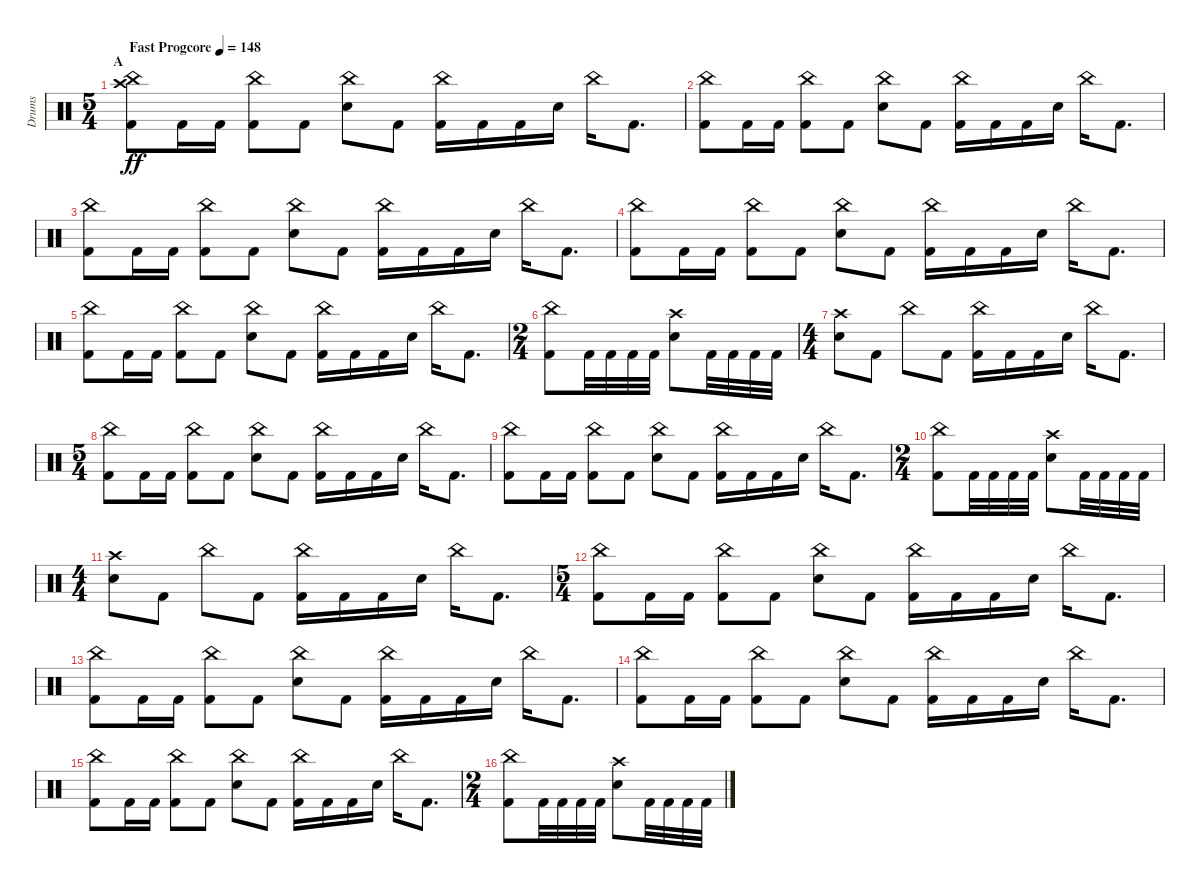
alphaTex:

\track ("Drums" "Drums") {instrument percussion}
\staff {score}
\articulation defaults
\ts (5 4)
\section ("" "A")
\tempo (148 "Fast Progcore")
\clef neutral
\ks c
("Crash high (hit)" "China (hit)" "Kick (hit) 2").8{dy ff} "Kick (hit) 2".16 "Kick (hit) 2".16 ("China (hit)" "Kick (hit) 2").8 "Kick (hit) 2".8 ("China (hit)" "Electric Snare (hit)").8 "Kick (hit) 2".8 ("China (hit)" "Kick (hit) 2").16 "Kick (hit) 2".16 "Kick (hit) 2".16 "Electric Snare (hit)".16 "China (hit)".16 "Kick (hit) 2".8{d} |
("China (hit)" "Kick (hit) 2").8 "Kick (hit) 2".16 "Kick (hit) 2".16 ("China (hit)" "Kick (hit) 2").8 "Kick (hit) 2".8 ("China (hit)" "Electric Snare (hit)").8 "Kick (hit) 2".8 ("China (hit)" "Kick (hit) 2").16 "Kick (hit) 2".16 "Kick (hit) 2".16 "Electric Snare (hit)".16 "China (hit)".16 "Kick (hit) 2".8{d} |
("China (hit)" "Kick (hit) 2").8 "Kick (hit) 2".16 "Kick (hit) 2".16 ("China (hit)" "Kick (hit) 2").8 "Kick (hit) 2".8 ("China (hit)" "Electric Snare (hit)").8 "Kick (hit) 2".8 ("China (hit)" "Kick (hit) 2").16 "Kick (hit) 2".16 "Kick (hit) 2".16 "Electric Snare (hit)".16 "China (hit)".16 "Kick (hit) 2".8{d} |
("China (hit)" "Kick (hit) 2").8 "Kick (hit) 2".16 "Kick (hit) 2".16 ("China (hit)" "Kick (hit) 2").8 "Kick (hit) 2".8 ("China (hit)" "Electric Snare (hit)").8 "Kick (hit) 2".8 ("China (hit)" "Kick (hit) 2").16 "Kick (hit) 2".16 "Kick (hit) 2".16 "Electric Snare (hit)".16 "China (hit)".16 "Kick (hit) 2".8{d} |
("China (hit)" "Kick (hit) 2").8 "Kick (hit) 2".16 "Kick (hit) 2".16 ("China (hit)" "Kick (hit) 2").8 "Kick (hit) 2".8 ("China (hit)" "Electric Snare (hit)").8 "Kick (hit) 2".8 ("China (hit)" "Kick (hit) 2").16 "Kick (hit) 2".16 "Kick (hit) 2".16 "Electric Snare (hit)".16 "China (hit)".16 "Kick (hit) 2".8{d} |
\ts (2 4)
("China (hit)" "Kick (hit) 2").8 "Kick (hit) 2".32 "Kick (hit) 2".32 "Kick (hit) 2".32 "Kick (hit) 2".32 ("Crash high (hit)" "Electric Snare (hit)").8 "Kick (hit) 2".32 "Kick (hit) 2".32 "Kick (hit) 2".32 "Kick (hit) 2".32 |
\ts (4 4)
("Crash high (hit)" "Electric Snare (hit)").8 "Kick (hit) 2".8 "China (hit)".8 "Kick (hit) 2".8 ("China (hit)" "Kick (hit) 2").16 "Kick (hit) 2".16 "Kick (hit) 2".16 "Electric Snare (hit)".16 "China (hit)".16 "Kick (hit) 2".8{d} |
\ts (5 4)
("China (hit)" "Kick (hit) 2").8 "Kick (hit) 2".16 "Kick (hit) 2".16 ("China (hit)" "Kick (hit) 2").8 "Kick (hit) 2".8 ("China (hit)" "Electric Snare (hit)").8 "Kick (hit) 2".8 ("China (hit)" "Kick (hit) 2").16 "Kick (hit) 2".16 "Kick (hit) 2".16 "Electric Snare (hit)".16 "China (hit)".16 "Kick (hit) 2".8{d} |
("China (hit)" "Kick (hit) 2").8 "Kick (hit) 2".16 "Kick (hit) 2".16 ("China (hit)" "Kick (hit) 2").8 "Kick (hit) 2".8 ("China (hit)" "Electric Snare (hit)").8 "Kick (hit) 2".8 ("China (hit)" "Kick (hit) 2").16 "Kick (hit) 2".16 "Kick (hit) 2".16 "Electric Snare (hit)".16 "China (hit)".16 "Kick (hit) 2".8{d} |
\ts (2 4)
("China (hit)" "Kick (hit) 2").8 "Kick (hit) 2".32 "Kick (hit) 2".32 "Kick (hit) 2".32 "Kick (hit) 2".32 ("Crash high (hit)" "Electric Snare (hit)").8 "Kick (hit) 2".32 "Kick (hit) 2".32 "Kick (hit) 2".32 "Kick (hit) 2".32 |
\ts (4 4)
("Crash high (hit)" "Electric Snare (hit)").8 "Kick (hit) 2".8 "China (hit)".8 "Kick (hit) 2".8 ("China (hit)" "Kick (hit) 2").16 "Kick (hit) 2".16 "Kick (hit) 2".16 "Electric Snare (hit)".16 "China (hit)".16 "Kick (hit) 2".8{d} |
\ts (5 4)
("China (hit)" "Kick (hit) 2").8 "Kick (hit) 2".16 "Kick (hit) 2".16 ("China (hit)" "Kick (hit) 2").8 "Kick (hit) 2".8 ("China (hit)" "Electric Snare (hit)").8 "Kick (hit) 2".8 ("China (hit)" "Kick (hit) 2").16 "Kick (hit) 2".16 "Kick (hit) 2".16 "Electric Snare (hit)".16 "China (hit)".16 "Kick (hit) 2".8{d} |
("China (hit)" "Kick (hit) 2").8 "Kick (hit) 2".16 "Kick (hit) 2".16 ("China (hit)" "Kick (hit) 2").8 "Kick (hit) 2".8 ("China (hit)" "Electric Snare (hit)").8 "Kick (hit) 2".8 ("China (hit)" "Kick (hit) 2").16 "Kick (hit) 2".16 "Kick (hit) 2".16 "Electric Snare (hit)".16 "China (hit)".16 "Kick (hit) 2".8{d} |
("China (hit)" "Kick (hit) 2").8 "Kick (hit) 2".16 "Kick (hit) 2".16 ("China (hit)" "Kick (hit) 2").8 "Kick (hit) 2".8 ("China (hit)" "Electric Snare (hit)").8 "Kick (hit) 2".8 ("China (hit)" "Kick (hit) 2").16 "Kick (hit) 2".16 "Kick (hit) 2".16 "Electric Snare (hit)".16 "China (hit)".16 "Kick (hit) 2".8{d} |
("China (hit)" "Kick (hit) 2").8 "Kick (hit) 2".16 "Kick (hit) 2".16 ("China (hit)" "Kick (hit) 2").8 "Kick (hit) 2".8 ("China (hit)" "Electric Snare (hit)").8 "Kick (hit) 2".8 ("China (hit)" "Kick (hit) 2").16 "Kick (hit) 2".16 "Kick (hit) 2".16 "Electric Snare (hit)".16 "China (hit)".16 "Kick (hit) 2".8{d} |
\ts (2 4)
("China (hit)" "Kick (hit) 2").8 "Kick (hit) 2".32 "Kick (hit) 2".32 "Kick (hit) 2".32 "Kick (hit) 2".32 ("Crash high (hit)" "Electric Snare (hit)").8 "Kick (hit) 2".32 "Kick (hit) 2".32 "Kick (hit) 2".32 "Kick (hit) 2".32
